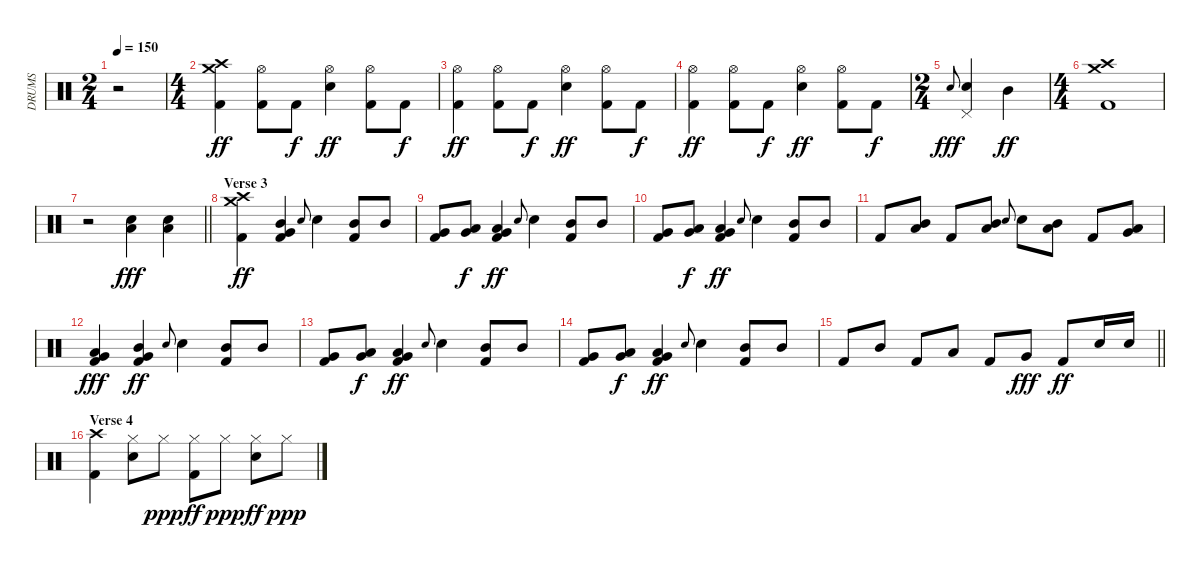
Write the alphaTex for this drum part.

\track ("DRUMS" "DRUMS") {instrument percussion}
\staff {score}
\articulation defaults
\ts (2 4)
\tempo 150
\clef neutral
\ks c
r.2{dy ff} |
\ts (4 4)
("Crash medium (hit)" "Crash high (hit)" "Kick (hit) 2").4 ("Hi-Hat (open)" "Kick (hit) 2").8 "Kick (hit) 2".8{dy f} ("Hi-Hat (open)" "Snare (hit) 2").4{dy ff} ("Hi-Hat (open)" "Kick (hit) 2").8 "Kick (hit) 2".8{dy f} |
("Hi-Hat (open)" "Kick (hit) 2").4{dy ff} ("Hi-Hat (open)" "Kick (hit) 2").8 "Kick (hit) 2".8{dy f} ("Hi-Hat (open)" "Snare (hit) 2").4{dy ff} ("Hi-Hat (open)" "Kick (hit) 2").8 "Kick (hit) 2".8{dy f} |
("Hi-Hat (open)" "Kick (hit) 2").4{dy ff} ("Hi-Hat (open)" "Kick (hit) 2").8 "Kick (hit) 2".8{dy f} ("Hi-Hat (open)" "Snare (hit) 2").4{dy ff} ("Hi-Hat (open)" "Kick (hit) 2").8 "Kick (hit) 2".8{dy f} |
\ts (2 4)
"Electric Snare (hit)".8{gr onbeat dy fff} ("Pedal Hi-Hat (hit)" "Snare (hit) 2").4 "Mid Tom (hit)".4{dy ff} |
\ts (4 4)
("Crash medium (hit)" "Crash high (hit)" "Kick (hit) 2").1 |
\barLineRight lightlight
r.2 ("Snare (hit) 2" "Low Floor Tom (hit)").4{dy fff} ("Snare (hit) 2" "Low Floor Tom (hit)").4 |
\section ("" "Verse 3")
("Crash medium (hit)" "Crash high (hit)" "Kick (hit) 2").4{dy ff} ("Mid Tom (hit)" "Very Low Tom (hit)" "Kick (hit) 2").4 "Electric Snare (hit)".8{gr onbeat} "Snare (hit) 2".4 ("Mid Tom (hit)" "Kick (hit) 2").8 "Mid Tom (hit)".8 |
("Very Low Tom (hit)" "Kick (hit) 2").8 ("Low Tom (hit)" "Very Low Tom (hit)").8{dy f} ("Low Tom (hit)" "Very Low Tom (hit)" "Kick (hit) 2").4{dy ff} "Electric Snare (hit)".8{gr onbeat} "Snare (hit) 2".4 ("Mid Tom (hit)" "Kick (hit) 2").8 "Mid Tom (hit)".8 |
("Very Low Tom (hit)" "Kick (hit) 2").8 ("Low Tom (hit)" "Very Low Tom (hit)").8{dy f} ("Low Tom (hit)" "Very Low Tom (hit)" "Kick (hit) 2").4{dy ff} "Electric Snare (hit)".8{gr onbeat} "Snare (hit) 2".4 ("Mid Tom (hit)" "Kick (hit) 2").8 "Mid Tom (hit)".8 |
"Kick (hit) 2".8 ("Mid Tom (hit)" "Low Tom (hit)").8 "Kick (hit) 2".8 ("Mid Tom (hit)" "Low Tom (hit)").8 "Electric Snare (hit)".8{gr onbeat} "Snare (hit) 2".8 ("Mid Tom (hit)" "Low Tom (hit)").8 "Kick (hit) 2".8 ("Low Tom (hit)" "Very Low Tom (hit)").8 |
("Low Tom (hit)" "Very Low Tom (hit)" "Kick (hit) 2").4{dy fff} ("Mid Tom (hit)" "Very Low Tom (hit)" "Kick (hit) 2").4{dy ff} "Electric Snare (hit)".8{gr onbeat} "Snare (hit) 2".4 ("Mid Tom (hit)" "Kick (hit) 2").8 "Mid Tom (hit)".8 |
("Very Low Tom (hit)" "Kick (hit) 2").8 ("Low Tom (hit)" "Very Low Tom (hit)").8{dy f} ("Low Tom (hit)" "Very Low Tom (hit)" "Kick (hit) 2").4{dy ff} "Electric Snare (hit)".8{gr onbeat} "Snare (hit) 2".4 ("Mid Tom (hit)" "Kick (hit) 2").8 "Mid Tom (hit)".8 |
("Very Low Tom (hit)" "Kick (hit) 2").8 ("Low Tom (hit)" "Very Low Tom (hit)").8{dy f} ("Low Tom (hit)" "Very Low Tom (hit)" "Kick (hit) 2").4{dy ff} "Electric Snare (hit)".8{gr onbeat} "Snare (hit) 2".4 ("Mid Tom (hit)" "Kick (hit) 2").8 "Mid Tom (hit)".8 |
\barLineRight lightlight "Kick (hit) 2".8 "Mid Tom (hit)".8 "Kick (hit) 2".8 "Low Tom (hit)".8 "Kick (hit) 2".8 "Very Low Tom (hit)".8{dy fff} "Kick (hit) 2".8{dy ff} "Electric Snare (hit)".16 "Snare (hit) 2".16
|
\section ("" "Verse 4")
("Crash high (hit)" "Kick (hit) 2").4 ("Hi-Hat (closed)" "Snare (hit) 2").8 "Hi-Hat (closed)".8{dy ppp} ("Hi-Hat (closed)" "Kick (hit) 2").8{dy ff} "Hi-Hat (closed)".8{dy ppp} ("Hi-Hat (closed)" "Snare (hit) 2").8{dy ff} "Hi-Hat (closed)".8{dy ppp}
